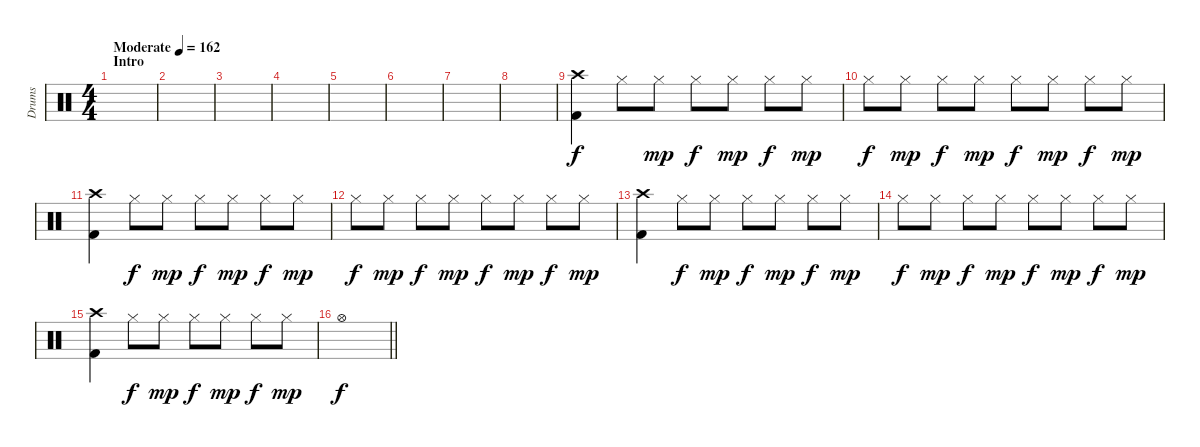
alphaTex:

\track ("Drums" "Drums") {instrument percussion}
\staff {score}
\articulation defaults
\ts (4 4)
\section ("" "Intro")
\tempo (162 "Moderate")
\clef neutral
\ks c
|
|
|
|
|
|
|
|
("Crash high (hit)" "Kick (hit) 2").4 "Hi-Hat (closed)".8{dy f} "Hi-Hat (closed)".8{dy mp} "Hi-Hat (closed)".8{dy f} "Hi-Hat (closed)".8{dy mp} "Hi-Hat (closed)".8{dy f} "Hi-Hat (closed)".8{dy mp} |
"Hi-Hat (closed)".8{dy f} "Hi-Hat (closed)".8{dy mp} "Hi-Hat (closed)".8{dy f} "Hi-Hat (closed)".8{dy mp} "Hi-Hat (closed)".8{dy f} "Hi-Hat (closed)".8{dy mp} "Hi-Hat (closed)".8{dy f} "Hi-Hat (closed)".8{dy mp} |
("Crash high (hit)" "Kick (hit) 2").4 "Hi-Hat (closed)".8{dy f} "Hi-Hat (closed)".8{dy mp} "Hi-Hat (closed)".8{dy f} "Hi-Hat (closed)".8{dy mp} "Hi-Hat (closed)".8{dy f} "Hi-Hat (closed)".8{dy mp} |
"Hi-Hat (closed)".8{dy f} "Hi-Hat (closed)".8{dy mp} "Hi-Hat (closed)".8{dy f} "Hi-Hat (closed)".8{dy mp} "Hi-Hat (closed)".8{dy f} "Hi-Hat (closed)".8{dy mp} "Hi-Hat (closed)".8{dy f} "Hi-Hat (closed)".8{dy mp} |
("Crash high (hit)" "Kick (hit) 2").4 "Hi-Hat (closed)".8{dy f} "Hi-Hat (closed)".8{dy mp} "Hi-Hat (closed)".8{dy f} "Hi-Hat (closed)".8{dy mp} "Hi-Hat (closed)".8{dy f} "Hi-Hat (closed)".8{dy mp} |
"Hi-Hat (closed)".8{dy f} "Hi-Hat (closed)".8{dy mp} "Hi-Hat (closed)".8{dy f} "Hi-Hat (closed)".8{dy mp} "Hi-Hat (closed)".8{dy f} "Hi-Hat (closed)".8{dy mp} "Hi-Hat (closed)".8{dy f} "Hi-Hat (closed)".8{dy mp} |
("Crash high (hit)" "Kick (hit) 2").4 "Hi-Hat (closed)".8{dy f} "Hi-Hat (closed)".8{dy mp} "Hi-Hat (closed)".8{dy f} "Hi-Hat (closed)".8{dy mp} "Hi-Hat (closed)".8{dy f} "Hi-Hat (closed)".8{dy mp} |
\barLineRight lightlight "Hi-Hat (open)".1{dy f}
